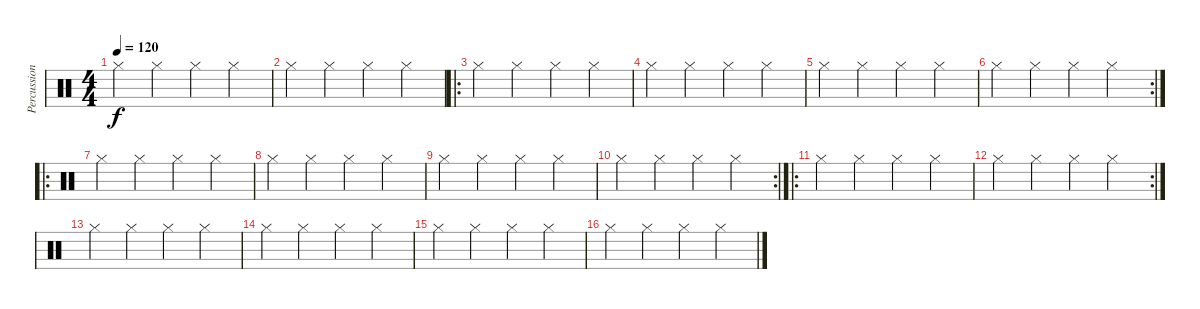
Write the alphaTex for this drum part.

\track ("Percussioni" "Percussion") {instrument percussion}
\staff {score}
\articulation defaults
\ts (4 4)
\tempo 120
\clef neutral
\ks c "Hi-Hat (closed)".4{dy f} "Hi-Hat (closed)".4 "Hi-Hat (closed)".4 "Hi-Hat (closed)".4
|
"Hi-Hat (closed)".4 "Hi-Hat (closed)".4 "Hi-Hat (closed)".4 "Hi-Hat (closed)".4 |
\ro "Hi-Hat (closed)".4 "Hi-Hat (closed)".4 "Hi-Hat (closed)".4 "Hi-Hat (closed)".4
|
"Hi-Hat (closed)".4 "Hi-Hat (closed)".4 "Hi-Hat (closed)".4 "Hi-Hat (closed)".4 |
"Hi-Hat (closed)".4 "Hi-Hat (closed)".4 "Hi-Hat (closed)".4 "Hi-Hat (closed)".4 |
\rc 2 "Hi-Hat (closed)".4 "Hi-Hat (closed)".4 "Hi-Hat (closed)".4 "Hi-Hat (closed)".4
|
\ro "Hi-Hat (closed)".4 "Hi-Hat (closed)".4 "Hi-Hat (closed)".4 "Hi-Hat (closed)".4
|
"Hi-Hat (closed)".4 "Hi-Hat (closed)".4 "Hi-Hat (closed)".4 "Hi-Hat (closed)".4 |
"Hi-Hat (closed)".4 "Hi-Hat (closed)".4 "Hi-Hat (closed)".4 "Hi-Hat (closed)".4 |
\rc 2 "Hi-Hat (closed)".4 "Hi-Hat (closed)".4 "Hi-Hat (closed)".4 "Hi-Hat (closed)".4
|
\ro "Hi-Hat (closed)".4 "Hi-Hat (closed)".4 "Hi-Hat (closed)".4 "Hi-Hat (closed)".4
|
\rc 2 "Hi-Hat (closed)".4 "Hi-Hat (closed)".4 "Hi-Hat (closed)".4 "Hi-Hat (closed)".4
|
"Hi-Hat (closed)".4 "Hi-Hat (closed)".4 "Hi-Hat (closed)".4 "Hi-Hat (closed)".4 |
"Hi-Hat (closed)".4 "Hi-Hat (closed)".4 "Hi-Hat (closed)".4 "Hi-Hat (closed)".4 |
"Hi-Hat (closed)".4 "Hi-Hat (closed)".4 "Hi-Hat (closed)".4 "Hi-Hat (closed)".4 |
"Hi-Hat (closed)".4 "Hi-Hat (closed)".4 "Hi-Hat (closed)".4 "Hi-Hat (closed)".4
